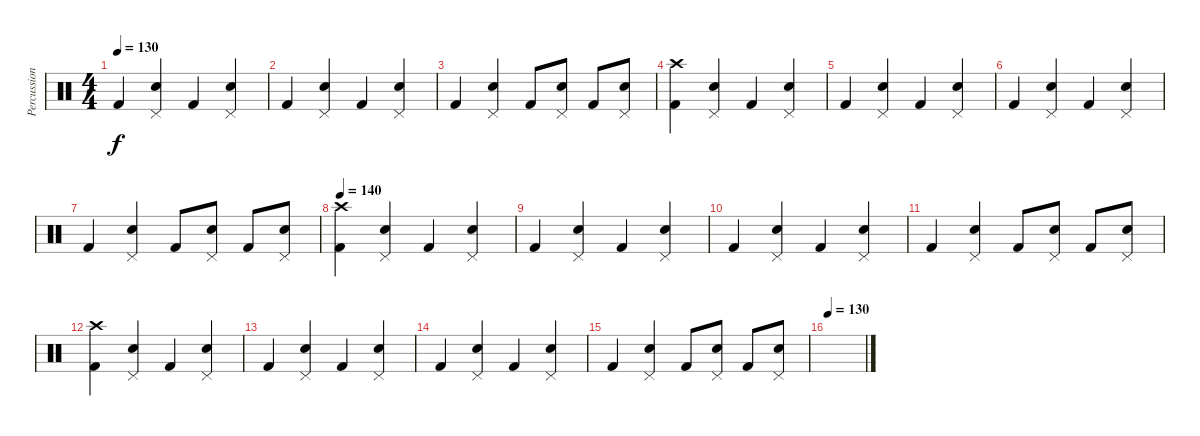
\track ("Percussioni" "Percussion") {instrument percussion}
\staff {score}
\articulation defaults
\ts (4 4)
\tempo 130
\clef neutral
\ks c "Kick (hit) 2".4{dy f}
("Pedal Hi-Hat (hit)" "Snare (hit) 2").4 "Kick (hit) 2".4 ("Pedal Hi-Hat (hit)" "Snare (hit) 2").4 |
"Kick (hit) 2".4 ("Pedal Hi-Hat (hit)" "Snare (hit) 2").4 "Kick (hit) 2".4 ("Pedal Hi-Hat (hit)" "Snare (hit) 2").4 |
"Kick (hit) 2".4 ("Pedal Hi-Hat (hit)" "Snare (hit) 2").4 "Kick (hit) 2".8 ("Pedal Hi-Hat (hit)" "Snare (hit) 2").8 "Kick (hit) 2".8 ("Pedal Hi-Hat (hit)" "Snare (hit) 2").8 |
("Crash high (hit)" "Kick (hit) 2").4{volume 13} ("Pedal Hi-Hat (hit)" "Snare (hit) 2").4 "Kick (hit) 2".4 ("Pedal Hi-Hat (hit)" "Snare (hit) 2").4 |
"Kick (hit) 2".4 ("Pedal Hi-Hat (hit)" "Snare (hit) 2").4 "Kick (hit) 2".4 ("Pedal Hi-Hat (hit)" "Snare (hit) 2").4 |
"Kick (hit) 2".4 ("Pedal Hi-Hat (hit)" "Snare (hit) 2").4 "Kick (hit) 2".4 ("Pedal Hi-Hat (hit)" "Snare (hit) 2").4 |
"Kick (hit) 2".4 ("Pedal Hi-Hat (hit)" "Snare (hit) 2").4 "Kick (hit) 2".8 ("Pedal Hi-Hat (hit)" "Snare (hit) 2").8 "Kick (hit) 2".8 ("Pedal Hi-Hat (hit)" "Snare (hit) 2").8 |
\tempo 140
("Crash high (hit)" "Kick (hit) 2").4{volume 13} ("Pedal Hi-Hat (hit)" "Snare (hit) 2").4 "Kick (hit) 2".4 ("Pedal Hi-Hat (hit)" "Snare (hit) 2").4 |
"Kick (hit) 2".4 ("Pedal Hi-Hat (hit)" "Snare (hit) 2").4 "Kick (hit) 2".4 ("Pedal Hi-Hat (hit)" "Snare (hit) 2").4 |
"Kick (hit) 2".4 ("Pedal Hi-Hat (hit)" "Snare (hit) 2").4 "Kick (hit) 2".4 ("Pedal Hi-Hat (hit)" "Snare (hit) 2").4 |
"Kick (hit) 2".4 ("Pedal Hi-Hat (hit)" "Snare (hit) 2").4 "Kick (hit) 2".8 ("Pedal Hi-Hat (hit)" "Snare (hit) 2").8 "Kick (hit) 2".8 ("Pedal Hi-Hat (hit)" "Snare (hit) 2").8 |
("Crash high (hit)" "Kick (hit) 2").4{volume 13} ("Pedal Hi-Hat (hit)" "Snare (hit) 2").4 "Kick (hit) 2".4 ("Pedal Hi-Hat (hit)" "Snare (hit) 2").4 |
"Kick (hit) 2".4 ("Pedal Hi-Hat (hit)" "Snare (hit) 2").4 "Kick (hit) 2".4 ("Pedal Hi-Hat (hit)" "Snare (hit) 2").4 |
"Kick (hit) 2".4 ("Pedal Hi-Hat (hit)" "Snare (hit) 2").4 "Kick (hit) 2".4 ("Pedal Hi-Hat (hit)" "Snare (hit) 2").4 |
"Kick (hit) 2".4 ("Pedal Hi-Hat (hit)" "Snare (hit) 2").4 "Kick (hit) 2".8 ("Pedal Hi-Hat (hit)" "Snare (hit) 2").8 "Kick (hit) 2".8 ("Pedal Hi-Hat (hit)" "Snare (hit) 2").8 |
\tempo 130
